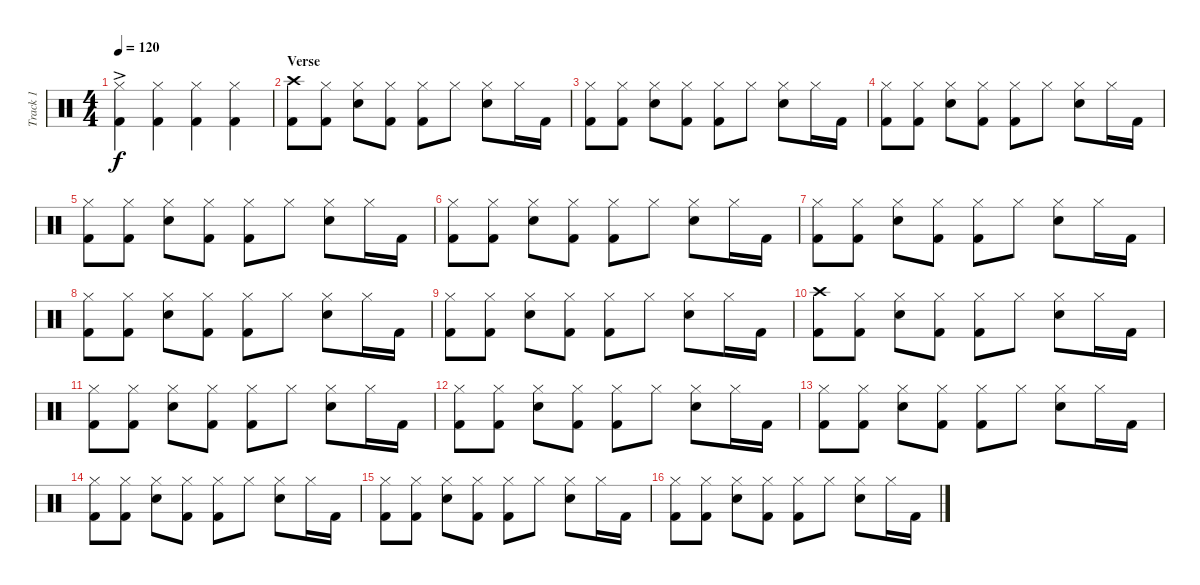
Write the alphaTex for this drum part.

\track ("Track 1" "Track 1") {instrument percussion}
\staff {score}
\articulation defaults
\ts (4 4)
\tempo 120
\clef neutral
\ks c
("Hi-Hat (closed)"{ac} "Kick (hit) 2").4{dy f} ("Hi-Hat (closed)" "Kick (hit) 2").4 ("Hi-Hat (closed)" "Kick (hit) 2").4 ("Hi-Hat (closed)" "Kick (hit) 2").4 |
\section ("" "Verse")
("Crash high (hit)" "Kick (hit) 2").8 ("Hi-Hat (closed)" "Kick (hit) 2").8 ("Hi-Hat (closed)" "Snare (hit) 2").8 ("Hi-Hat (closed)" "Kick (hit) 2").8 ("Hi-Hat (closed)" "Kick (hit) 2").8 "Hi-Hat (closed)".8 ("Hi-Hat (closed)" "Snare (hit) 2").8 "Hi-Hat (closed)".16 "Kick (hit) 2".16 |
("Hi-Hat (closed)" "Kick (hit) 2").8 ("Hi-Hat (closed)" "Kick (hit) 2").8 ("Hi-Hat (closed)" "Snare (hit) 2").8 ("Hi-Hat (closed)" "Kick (hit) 2").8 ("Hi-Hat (closed)" "Kick (hit) 2").8 "Hi-Hat (closed)".8 ("Hi-Hat (closed)" "Snare (hit) 2").8 "Hi-Hat (closed)".16 "Kick (hit) 2".16 |
("Hi-Hat (closed)" "Kick (hit) 2").8 ("Hi-Hat (closed)" "Kick (hit) 2").8 ("Hi-Hat (closed)" "Snare (hit) 2").8 ("Hi-Hat (closed)" "Kick (hit) 2").8 ("Hi-Hat (closed)" "Kick (hit) 2").8 "Hi-Hat (closed)".8 ("Hi-Hat (closed)" "Snare (hit) 2").8 "Hi-Hat (closed)".16 "Kick (hit) 2".16 |
("Hi-Hat (closed)" "Kick (hit) 2").8 ("Hi-Hat (closed)" "Kick (hit) 2").8 ("Hi-Hat (closed)" "Snare (hit) 2").8 ("Hi-Hat (closed)" "Kick (hit) 2").8 ("Hi-Hat (closed)" "Kick (hit) 2").8 "Hi-Hat (closed)".8 ("Hi-Hat (closed)" "Snare (hit) 2").8 "Hi-Hat (closed)".16 "Kick (hit) 2".16 |
("Hi-Hat (closed)" "Kick (hit) 2").8 ("Hi-Hat (closed)" "Kick (hit) 2").8 ("Hi-Hat (closed)" "Snare (hit) 2").8 ("Hi-Hat (closed)" "Kick (hit) 2").8 ("Hi-Hat (closed)" "Kick (hit) 2").8 "Hi-Hat (closed)".8 ("Hi-Hat (closed)" "Snare (hit) 2").8 "Hi-Hat (closed)".16 "Kick (hit) 2".16 |
("Hi-Hat (closed)" "Kick (hit) 2").8 ("Hi-Hat (closed)" "Kick (hit) 2").8 ("Hi-Hat (closed)" "Snare (hit) 2").8 ("Hi-Hat (closed)" "Kick (hit) 2").8 ("Hi-Hat (closed)" "Kick (hit) 2").8 "Hi-Hat (closed)".8 ("Hi-Hat (closed)" "Snare (hit) 2").8 "Hi-Hat (closed)".16 "Kick (hit) 2".16 |
("Hi-Hat (closed)" "Kick (hit) 2").8 ("Hi-Hat (closed)" "Kick (hit) 2").8 ("Hi-Hat (closed)" "Snare (hit) 2").8 ("Hi-Hat (closed)" "Kick (hit) 2").8 ("Hi-Hat (closed)" "Kick (hit) 2").8 "Hi-Hat (closed)".8 ("Hi-Hat (closed)" "Snare (hit) 2").8 "Hi-Hat (closed)".16 "Kick (hit) 2".16 |
("Hi-Hat (closed)" "Kick (hit) 2").8 ("Hi-Hat (closed)" "Kick (hit) 2").8 ("Hi-Hat (closed)" "Snare (hit) 2").8 ("Hi-Hat (closed)" "Kick (hit) 2").8 ("Hi-Hat (closed)" "Kick (hit) 2").8 "Hi-Hat (closed)".8 ("Hi-Hat (closed)" "Snare (hit) 2").8 "Hi-Hat (closed)".16 "Kick (hit) 2".16 |
("Crash high (hit)" "Kick (hit) 2").8 ("Hi-Hat (closed)" "Kick (hit) 2").8 ("Hi-Hat (closed)" "Snare (hit) 2").8 ("Hi-Hat (closed)" "Kick (hit) 2").8 ("Hi-Hat (closed)" "Kick (hit) 2").8 "Hi-Hat (closed)".8 ("Hi-Hat (closed)" "Snare (hit) 2").8 "Hi-Hat (closed)".16 "Kick (hit) 2".16 |
("Hi-Hat (closed)" "Kick (hit) 2").8 ("Hi-Hat (closed)" "Kick (hit) 2").8 ("Hi-Hat (closed)" "Snare (hit) 2").8 ("Hi-Hat (closed)" "Kick (hit) 2").8 ("Hi-Hat (closed)" "Kick (hit) 2").8 "Hi-Hat (closed)".8 ("Hi-Hat (closed)" "Snare (hit) 2").8 "Hi-Hat (closed)".16 "Kick (hit) 2".16 |
("Hi-Hat (closed)" "Kick (hit) 2").8 ("Hi-Hat (closed)" "Kick (hit) 2").8 ("Hi-Hat (closed)" "Snare (hit) 2").8 ("Hi-Hat (closed)" "Kick (hit) 2").8 ("Hi-Hat (closed)" "Kick (hit) 2").8 "Hi-Hat (closed)".8 ("Hi-Hat (closed)" "Snare (hit) 2").8 "Hi-Hat (closed)".16 "Kick (hit) 2".16 |
("Hi-Hat (closed)" "Kick (hit) 2").8 ("Hi-Hat (closed)" "Kick (hit) 2").8 ("Hi-Hat (closed)" "Snare (hit) 2").8 ("Hi-Hat (closed)" "Kick (hit) 2").8 ("Hi-Hat (closed)" "Kick (hit) 2").8 "Hi-Hat (closed)".8 ("Hi-Hat (closed)" "Snare (hit) 2").8 "Hi-Hat (closed)".16 "Kick (hit) 2".16 |
("Hi-Hat (closed)" "Kick (hit) 2").8 ("Hi-Hat (closed)" "Kick (hit) 2").8 ("Hi-Hat (closed)" "Snare (hit) 2").8 ("Hi-Hat (closed)" "Kick (hit) 2").8 ("Hi-Hat (closed)" "Kick (hit) 2").8 "Hi-Hat (closed)".8 ("Hi-Hat (closed)" "Snare (hit) 2").8 "Hi-Hat (closed)".16 "Kick (hit) 2".16 |
("Hi-Hat (closed)" "Kick (hit) 2").8 ("Hi-Hat (closed)" "Kick (hit) 2").8 ("Hi-Hat (closed)" "Snare (hit) 2").8 ("Hi-Hat (closed)" "Kick (hit) 2").8 ("Hi-Hat (closed)" "Kick (hit) 2").8 "Hi-Hat (closed)".8 ("Hi-Hat (closed)" "Snare (hit) 2").8 "Hi-Hat (closed)".16 "Kick (hit) 2".16 |
("Hi-Hat (closed)" "Kick (hit) 2").8 ("Hi-Hat (closed)" "Kick (hit) 2").8 ("Hi-Hat (closed)" "Snare (hit) 2").8 ("Hi-Hat (closed)" "Kick (hit) 2").8 ("Hi-Hat (closed)" "Kick (hit) 2").8 "Hi-Hat (closed)".8 ("Hi-Hat (closed)" "Snare (hit) 2").8 "Hi-Hat (closed)".16 "Kick (hit) 2".16
